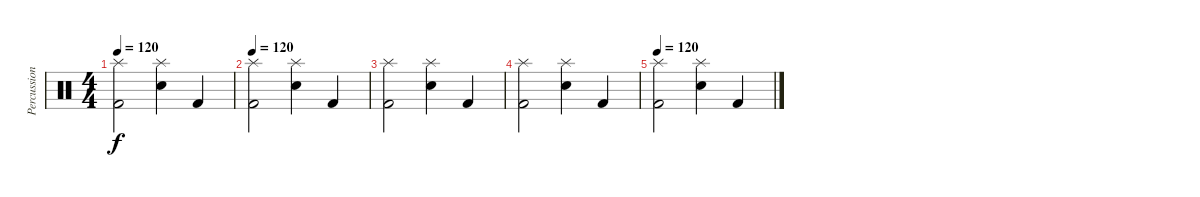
\track ("Percussions" "Percussion") {instrument percussion}
\staff {score}
\articulation defaults
\ts (4 4)
\tempo 120
\clef neutral
\ks c
("Splash (hit)" "Kick (hit) 2").2{dy f} ("Splash (hit)" "Snare (hit) 2").4 "Kick (hit) 2".4 |
\tempo 120
("Splash (hit)" "Kick (hit) 2").2 ("Splash (hit)" "Snare (hit) 2").4 "Kick (hit) 2".4 |
("Splash (hit)" "Kick (hit) 2").2 ("Splash (hit)" "Snare (hit) 2").4 "Kick (hit) 2".4 |
("Splash (hit)" "Kick (hit) 2").2 ("Splash (hit)" "Snare (hit) 2").4 "Kick (hit) 2".4 |
\tempo 120
("Splash (hit)" "Kick (hit) 2").2 ("Splash (hit)" "Snare (hit) 2").4 "Kick (hit) 2".4
